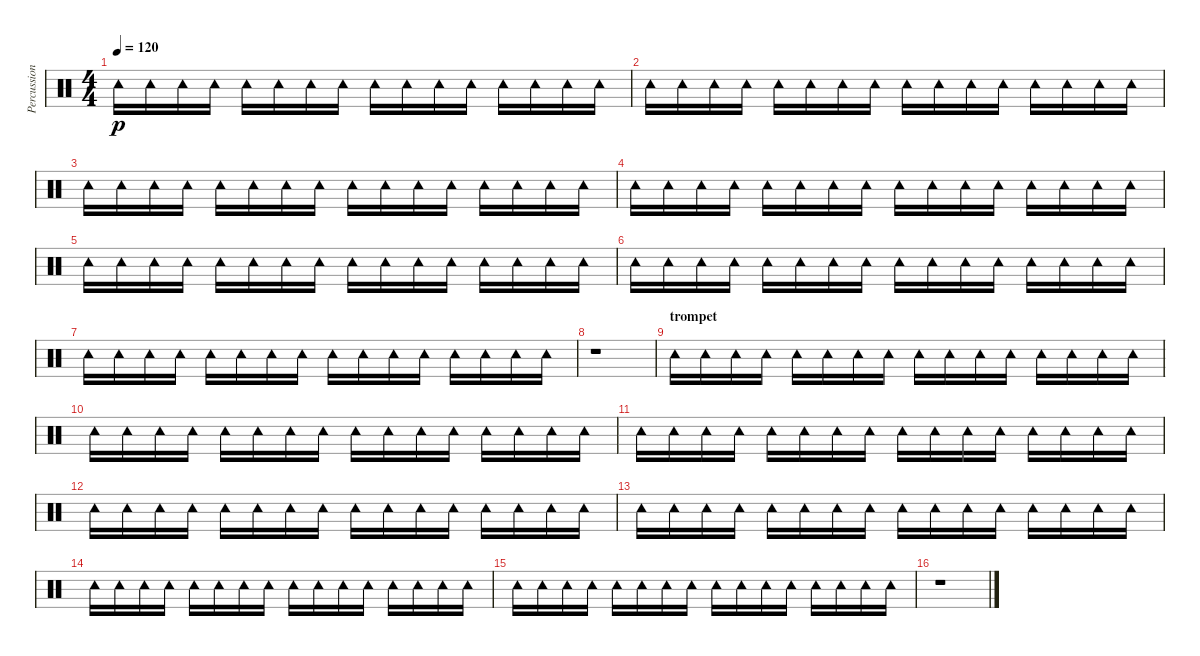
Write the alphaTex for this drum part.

\track ("Percussions" "Percussion") {instrument percussion}
\staff {score}
\articulation defaults
\ts (4 4)
\tempo 120
\clef neutral
\ks c "Tambourine (hit)".16{dy p} "Tambourine (hit)".16 "Tambourine (hit)".16 "Tambourine (hit)".16 "Tambourine (hit)".16 "Tambourine (hit)".16 "Tambourine (hit)".16 "Tambourine (hit)".16 "Tambourine (hit)".16 "Tambourine (hit)".16 "Tambourine (hit)".16 "Tambourine (hit)".16 "Tambourine (hit)".16 "Tambourine (hit)".16 "Tambourine (hit)".16 "Tambourine (hit)".16
|
"Tambourine (hit)".16 "Tambourine (hit)".16 "Tambourine (hit)".16 "Tambourine (hit)".16 "Tambourine (hit)".16 "Tambourine (hit)".16 "Tambourine (hit)".16 "Tambourine (hit)".16 "Tambourine (hit)".16 "Tambourine (hit)".16 "Tambourine (hit)".16 "Tambourine (hit)".16 "Tambourine (hit)".16 "Tambourine (hit)".16 "Tambourine (hit)".16 "Tambourine (hit)".16 |
"Tambourine (hit)".16 "Tambourine (hit)".16 "Tambourine (hit)".16 "Tambourine (hit)".16 "Tambourine (hit)".16 "Tambourine (hit)".16 "Tambourine (hit)".16 "Tambourine (hit)".16 "Tambourine (hit)".16 "Tambourine (hit)".16 "Tambourine (hit)".16 "Tambourine (hit)".16 "Tambourine (hit)".16 "Tambourine (hit)".16 "Tambourine (hit)".16 "Tambourine (hit)".16 |
"Tambourine (hit)".16 "Tambourine (hit)".16 "Tambourine (hit)".16 "Tambourine (hit)".16 "Tambourine (hit)".16 "Tambourine (hit)".16 "Tambourine (hit)".16 "Tambourine (hit)".16 "Tambourine (hit)".16 "Tambourine (hit)".16 "Tambourine (hit)".16 "Tambourine (hit)".16 "Tambourine (hit)".16 "Tambourine (hit)".16 "Tambourine (hit)".16 "Tambourine (hit)".16 |
"Tambourine (hit)".16 "Tambourine (hit)".16 "Tambourine (hit)".16 "Tambourine (hit)".16 "Tambourine (hit)".16 "Tambourine (hit)".16 "Tambourine (hit)".16 "Tambourine (hit)".16 "Tambourine (hit)".16 "Tambourine (hit)".16 "Tambourine (hit)".16 "Tambourine (hit)".16 "Tambourine (hit)".16 "Tambourine (hit)".16 "Tambourine (hit)".16 "Tambourine (hit)".16 |
"Tambourine (hit)".16 "Tambourine (hit)".16 "Tambourine (hit)".16 "Tambourine (hit)".16 "Tambourine (hit)".16 "Tambourine (hit)".16 "Tambourine (hit)".16 "Tambourine (hit)".16 "Tambourine (hit)".16 "Tambourine (hit)".16 "Tambourine (hit)".16 "Tambourine (hit)".16 "Tambourine (hit)".16 "Tambourine (hit)".16 "Tambourine (hit)".16 "Tambourine (hit)".16 |
"Tambourine (hit)".16 "Tambourine (hit)".16 "Tambourine (hit)".16 "Tambourine (hit)".16 "Tambourine (hit)".16 "Tambourine (hit)".16 "Tambourine (hit)".16 "Tambourine (hit)".16 "Tambourine (hit)".16 "Tambourine (hit)".16 "Tambourine (hit)".16 "Tambourine (hit)".16 "Tambourine (hit)".16 "Tambourine (hit)".16 "Tambourine (hit)".16 "Tambourine (hit)".16 |
r.1 |
\section ("" "trompet")
"Tambourine (hit)".16 "Tambourine (hit)".16 "Tambourine (hit)".16 "Tambourine (hit)".16 "Tambourine (hit)".16 "Tambourine (hit)".16 "Tambourine (hit)".16 "Tambourine (hit)".16 "Tambourine (hit)".16 "Tambourine (hit)".16 "Tambourine (hit)".16 "Tambourine (hit)".16 "Tambourine (hit)".16 "Tambourine (hit)".16 "Tambourine (hit)".16 "Tambourine (hit)".16 |
"Tambourine (hit)".16 "Tambourine (hit)".16 "Tambourine (hit)".16 "Tambourine (hit)".16 "Tambourine (hit)".16 "Tambourine (hit)".16 "Tambourine (hit)".16 "Tambourine (hit)".16 "Tambourine (hit)".16 "Tambourine (hit)".16 "Tambourine (hit)".16 "Tambourine (hit)".16 "Tambourine (hit)".16 "Tambourine (hit)".16 "Tambourine (hit)".16 "Tambourine (hit)".16 |
"Tambourine (hit)".16 "Tambourine (hit)".16 "Tambourine (hit)".16 "Tambourine (hit)".16 "Tambourine (hit)".16 "Tambourine (hit)".16 "Tambourine (hit)".16 "Tambourine (hit)".16 "Tambourine (hit)".16 "Tambourine (hit)".16 "Tambourine (hit)".16 "Tambourine (hit)".16 "Tambourine (hit)".16 "Tambourine (hit)".16 "Tambourine (hit)".16 "Tambourine (hit)".16 |
"Tambourine (hit)".16 "Tambourine (hit)".16 "Tambourine (hit)".16 "Tambourine (hit)".16 "Tambourine (hit)".16 "Tambourine (hit)".16 "Tambourine (hit)".16 "Tambourine (hit)".16 "Tambourine (hit)".16 "Tambourine (hit)".16 "Tambourine (hit)".16 "Tambourine (hit)".16 "Tambourine (hit)".16 "Tambourine (hit)".16 "Tambourine (hit)".16 "Tambourine (hit)".16 |
"Tambourine (hit)".16 "Tambourine (hit)".16 "Tambourine (hit)".16 "Tambourine (hit)".16 "Tambourine (hit)".16 "Tambourine (hit)".16 "Tambourine (hit)".16 "Tambourine (hit)".16 "Tambourine (hit)".16 "Tambourine (hit)".16 "Tambourine (hit)".16 "Tambourine (hit)".16 "Tambourine (hit)".16 "Tambourine (hit)".16 "Tambourine (hit)".16 "Tambourine (hit)".16 |
"Tambourine (hit)".16 "Tambourine (hit)".16 "Tambourine (hit)".16 "Tambourine (hit)".16 "Tambourine (hit)".16 "Tambourine (hit)".16 "Tambourine (hit)".16 "Tambourine (hit)".16 "Tambourine (hit)".16 "Tambourine (hit)".16 "Tambourine (hit)".16 "Tambourine (hit)".16 "Tambourine (hit)".16 "Tambourine (hit)".16 "Tambourine (hit)".16 "Tambourine (hit)".16 |
"Tambourine (hit)".16 "Tambourine (hit)".16 "Tambourine (hit)".16 "Tambourine (hit)".16 "Tambourine (hit)".16 "Tambourine (hit)".16 "Tambourine (hit)".16 "Tambourine (hit)".16 "Tambourine (hit)".16 "Tambourine (hit)".16 "Tambourine (hit)".16 "Tambourine (hit)".16 "Tambourine (hit)".16 "Tambourine (hit)".16 "Tambourine (hit)".16 "Tambourine (hit)".16 |
r.1
